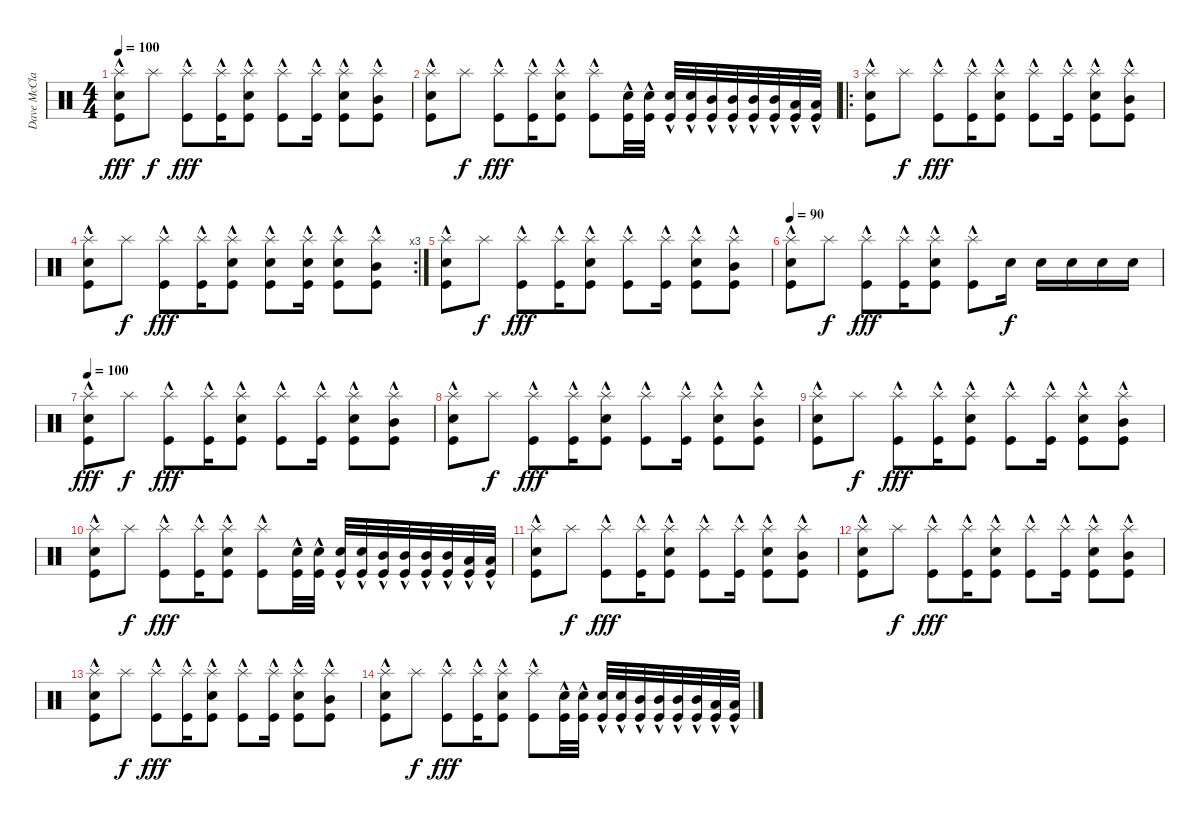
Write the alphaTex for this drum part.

\track ("Dave McClain" "Dave McCla") {instrument percussion}
\staff {score}
\articulation defaults
\ts (4 4)
\tempo 100
\clef neutral
\ks c
("Splash (hit)" "Electric Snare (hit)" "Kick (hit)"{hac}).8{dy fff} "Splash (hit)".8{dy f} ("Splash (hit)" "Kick (hit)"{hac}).8{dy fff} ("Splash (hit)" "Kick (hit)"{hac}).16 ("Splash (hit)" "Electric Snare (hit)" "Kick (hit)"{hac}).8 ("Splash (hit)" "Kick (hit)"{hac}).8 ("Splash (hit)" "Kick (hit)"{hac}).16 ("Splash (hit)" "Electric Snare (hit)" "Kick (hit)"{hac}).8 ("Splash (hit)" "Mid Tom (hit)" "Kick (hit)"{hac}).8 |
("Splash (hit)" "Electric Snare (hit)" "Kick (hit)"{hac}).8 "Splash (hit)".8{dy f} ("Splash (hit)" "Kick (hit)"{hac}).8{dy fff} ("Splash (hit)" "Kick (hit)"{hac}).16 ("Splash (hit)" "Electric Snare (hit)" "Kick (hit)"{hac}).8 ("Splash (hit)" "Kick (hit)"{hac}).8 ("Electric Snare (hit)" "Kick (hit)"{hac}).32 ("Electric Snare (hit)" "Kick (hit)"{hac}).32 ("Electric Snare (hit)" "Kick (hit)"{hac}).32 ("Electric Snare (hit)" "Kick (hit)"{hac}).32 ("Mid Tom (hit)" "Kick (hit)"{hac}).32 ("Mid Tom (hit)" "Kick (hit)"{hac}).32 ("Mid Tom (hit)" "Kick (hit)"{hac}).32 ("Mid Tom (hit)" "Kick (hit)"{hac}).32 ("Low Tom (hit)" "Kick (hit)"{hac}).32 ("Low Tom (hit)" "Kick (hit)"{hac}).32 |
\ro
("Splash (hit)" "Electric Snare (hit)" "Kick (hit)"{hac}).8 "Splash (hit)".8{dy f} ("Splash (hit)" "Kick (hit)"{hac}).8{dy fff} ("Splash (hit)" "Kick (hit)"{hac}).16 ("Splash (hit)" "Electric Snare (hit)" "Kick (hit)"{hac}).8 ("Splash (hit)" "Kick (hit)"{hac}).8 ("Splash (hit)" "Kick (hit)"{hac}).16 ("Splash (hit)" "Electric Snare (hit)" "Kick (hit)"{hac}).8 ("Splash (hit)" "Mid Tom (hit)" "Kick (hit)"{hac}).8 |
\rc 3
("Splash (hit)" "Electric Snare (hit)" "Kick (hit)"{hac}).8 "Splash (hit)".8{dy f} ("Splash (hit)" "Kick (hit)"{hac}).8{dy fff} ("Splash (hit)" "Kick (hit)"{hac}).16 ("Splash (hit)" "Electric Snare (hit)" "Kick (hit)"{hac}).8 ("Splash (hit)" "Electric Snare (hit)" "Kick (hit)"{hac}).8 ("Splash (hit)" "Electric Snare (hit)" "Kick (hit)"{hac}).16 ("Splash (hit)" "Electric Snare (hit)" "Kick (hit)"{hac}).8 ("Splash (hit)" "Mid Tom (hit)" "Kick (hit)"{hac}).8 |
("Splash (hit)" "Electric Snare (hit)" "Kick (hit)"{hac}).8 "Splash (hit)".8{dy f} ("Splash (hit)" "Kick (hit)"{hac}).8{dy fff} ("Splash (hit)" "Kick (hit)"{hac}).16 ("Splash (hit)" "Electric Snare (hit)" "Kick (hit)"{hac}).8 ("Splash (hit)" "Kick (hit)"{hac}).8 ("Splash (hit)" "Kick (hit)"{hac}).16 ("Splash (hit)" "Electric Snare (hit)" "Kick (hit)"{hac}).8 ("Splash (hit)" "Mid Tom (hit)" "Kick (hit)"{hac}).8 |
\tempo 90
("Splash (hit)" "Electric Snare (hit)" "Kick (hit)"{hac}).8 "Splash (hit)".8{dy f} ("Splash (hit)" "Kick (hit)"{hac}).8{dy fff} ("Splash (hit)" "Kick (hit)"{hac}).16 ("Splash (hit)" "Electric Snare (hit)" "Kick (hit)"{hac}).8 ("Splash (hit)" "Kick (hit)"{hac}).8 "Electric Snare (hit)".16{dy f} "Electric Snare (hit)".16 "Electric Snare (hit)".16 "Electric Snare (hit)".16 "Electric Snare (hit)".16 |
\tempo 100
("Splash (hit)" "Electric Snare (hit)" "Kick (hit)"{hac}).8{dy fff} "Splash (hit)".8{dy f} ("Splash (hit)" "Kick (hit)"{hac}).8{dy fff} ("Splash (hit)" "Kick (hit)"{hac}).16 ("Splash (hit)" "Electric Snare (hit)" "Kick (hit)"{hac}).8 ("Splash (hit)" "Kick (hit)"{hac}).8 ("Splash (hit)" "Kick (hit)"{hac}).16 ("Splash (hit)" "Electric Snare (hit)" "Kick (hit)"{hac}).8 ("Splash (hit)" "Mid Tom (hit)" "Kick (hit)"{hac}).8 |
("Splash (hit)" "Electric Snare (hit)" "Kick (hit)"{hac}).8 "Splash (hit)".8{dy f} ("Splash (hit)" "Kick (hit)"{hac}).8{dy fff} ("Splash (hit)" "Kick (hit)"{hac}).16 ("Splash (hit)" "Electric Snare (hit)" "Kick (hit)"{hac}).8 ("Splash (hit)" "Kick (hit)"{hac}).8 ("Splash (hit)" "Kick (hit)"{hac}).16 ("Splash (hit)" "Electric Snare (hit)" "Kick (hit)"{hac}).8 ("Splash (hit)" "Mid Tom (hit)" "Kick (hit)"{hac}).8 |
("Splash (hit)" "Electric Snare (hit)" "Kick (hit)"{hac}).8{volume 8} "Splash (hit)".8{dy f} ("Splash (hit)" "Kick (hit)"{hac}).8{dy fff} ("Splash (hit)" "Kick (hit)"{hac}).16 ("Splash (hit)" "Electric Snare (hit)" "Kick (hit)"{hac}).8 ("Splash (hit)" "Kick (hit)"{hac}).8 ("Splash (hit)" "Kick (hit)"{hac}).16 ("Splash (hit)" "Electric Snare (hit)" "Kick (hit)"{hac}).8 ("Splash (hit)" "Mid Tom (hit)" "Kick (hit)"{hac}).8 |
("Splash (hit)" "Electric Snare (hit)" "Kick (hit)"{hac}).8 "Splash (hit)".8{dy f} ("Splash (hit)" "Kick (hit)"{hac}).8{dy fff} ("Splash (hit)" "Kick (hit)"{hac}).16 ("Splash (hit)" "Electric Snare (hit)" "Kick (hit)"{hac}).8 ("Splash (hit)" "Kick (hit)"{hac}).8 ("Electric Snare (hit)" "Kick (hit)"{hac}).32 ("Electric Snare (hit)" "Kick (hit)"{hac}).32 ("Electric Snare (hit)" "Kick (hit)"{hac}).32 ("Electric Snare (hit)" "Kick (hit)"{hac}).32 ("Mid Tom (hit)" "Kick (hit)"{hac}).32 ("Mid Tom (hit)" "Kick (hit)"{hac}).32 ("Mid Tom (hit)" "Kick (hit)"{hac}).32 ("Mid Tom (hit)" "Kick (hit)"{hac}).32 ("Low Tom (hit)" "Kick (hit)"{hac}).32 ("Low Tom (hit)" "Kick (hit)"{hac}).32 |
("Splash (hit)" "Electric Snare (hit)" "Kick (hit)"{hac}).8 "Splash (hit)".8{dy f} ("Splash (hit)" "Kick (hit)"{hac}).8{dy fff} ("Splash (hit)" "Kick (hit)"{hac}).16 ("Splash (hit)" "Electric Snare (hit)" "Kick (hit)"{hac}).8 ("Splash (hit)" "Kick (hit)"{hac}).8 ("Splash (hit)" "Kick (hit)"{hac}).16 ("Splash (hit)" "Electric Snare (hit)" "Kick (hit)"{hac}).8 ("Splash (hit)" "Mid Tom (hit)" "Kick (hit)"{hac}).8 |
("Splash (hit)" "Electric Snare (hit)" "Kick (hit)"{hac}).8 "Splash (hit)".8{dy f} ("Splash (hit)" "Kick (hit)"{hac}).8{dy fff} ("Splash (hit)" "Kick (hit)"{hac}).16 ("Splash (hit)" "Electric Snare (hit)" "Kick (hit)"{hac}).8 ("Splash (hit)" "Kick (hit)"{hac}).8 ("Splash (hit)" "Kick (hit)"{hac}).16 ("Splash (hit)" "Electric Snare (hit)" "Kick (hit)"{hac}).8 ("Splash (hit)" "Mid Tom (hit)" "Kick (hit)"{hac}).8 |
("Splash (hit)" "Electric Snare (hit)" "Kick (hit)"{hac}).8{volume 0} "Splash (hit)".8{dy f} ("Splash (hit)" "Kick (hit)"{hac}).8{dy fff} ("Splash (hit)" "Kick (hit)"{hac}).16 ("Splash (hit)" "Electric Snare (hit)" "Kick (hit)"{hac}).8 ("Splash (hit)" "Kick (hit)"{hac}).8 ("Splash (hit)" "Kick (hit)"{hac}).16 ("Splash (hit)" "Electric Snare (hit)" "Kick (hit)"{hac}).8 ("Splash (hit)" "Mid Tom (hit)" "Kick (hit)"{hac}).8 |
("Splash (hit)" "Electric Snare (hit)" "Kick (hit)"{hac}).8 "Splash (hit)".8{dy f} ("Splash (hit)" "Kick (hit)"{hac}).8{dy fff} ("Splash (hit)" "Kick (hit)"{hac}).16 ("Splash (hit)" "Electric Snare (hit)" "Kick (hit)"{hac}).8 ("Splash (hit)" "Kick (hit)"{hac}).8 ("Electric Snare (hit)" "Kick (hit)"{hac}).32 ("Electric Snare (hit)" "Kick (hit)"{hac}).32 ("Electric Snare (hit)" "Kick (hit)"{hac}).32 ("Electric Snare (hit)" "Kick (hit)"{hac}).32 ("Mid Tom (hit)" "Kick (hit)"{hac}).32 ("Mid Tom (hit)" "Kick (hit)"{hac}).32 ("Mid Tom (hit)" "Kick (hit)"{hac}).32 ("Mid Tom (hit)" "Kick (hit)"{hac}).32 ("Low Tom (hit)" "Kick (hit)"{hac}).32 ("Low Tom (hit)" "Kick (hit)"{hac}).32
